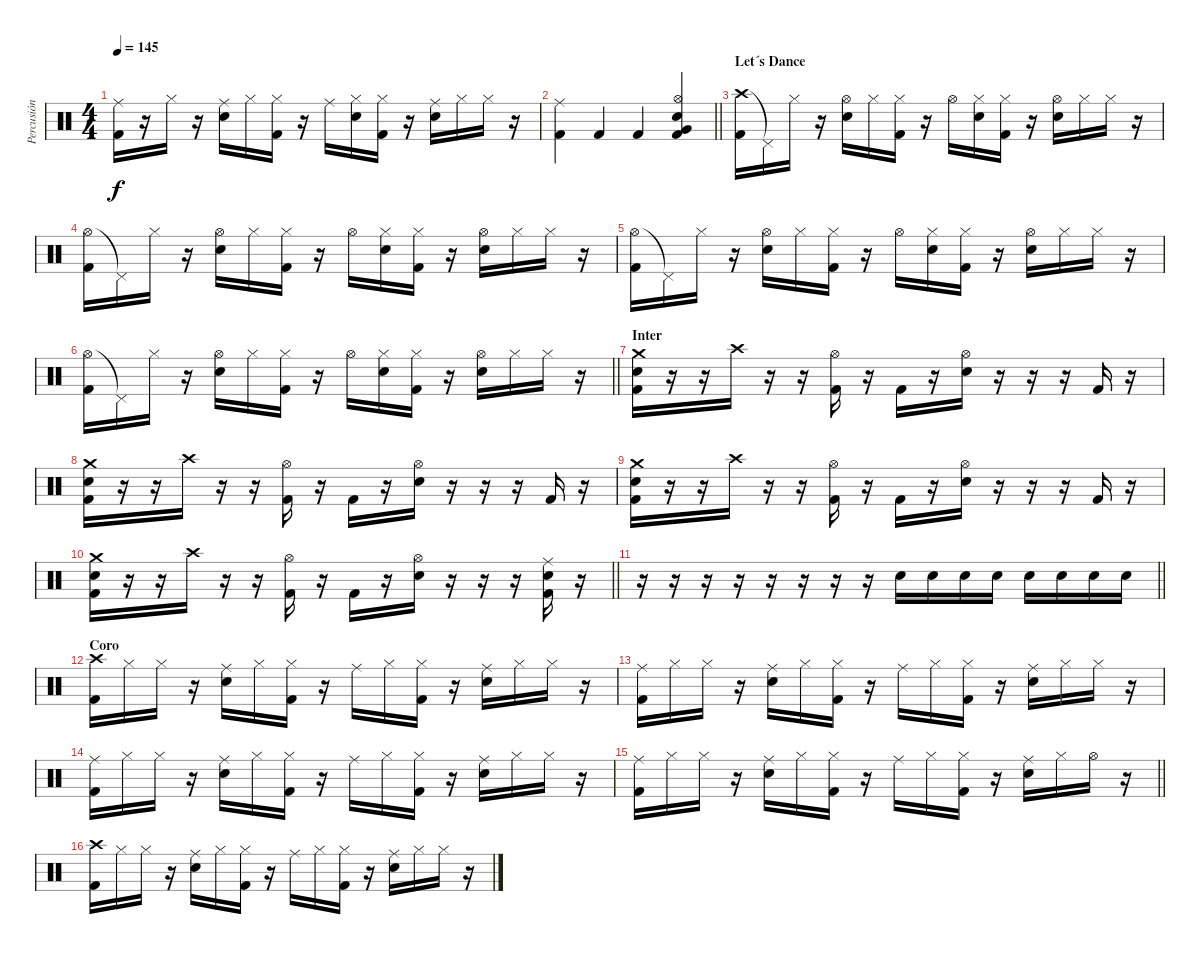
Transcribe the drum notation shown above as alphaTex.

\track ("Percusión" "Percusión") {instrument percussion}
\staff {score}
\articulation defaults
\ts (4 4)
\tempo 145
\clef neutral
\ks c
("Ride (middle)" "Kick (hit) 2").16{dy f} r.16 "Hi-Hat (closed)".16 r.16 ("Ride (middle)" "Electric Snare (hit)").16 "Hi-Hat (closed)".16 ("Hi-Hat (closed)" "Kick (hit) 2").16 r.16 "Ride (middle)".16 ("Hi-Hat (closed)" "Electric Snare (hit)").16 ("Hi-Hat (closed)" "Kick (hit) 2").16 r.16 ("Ride (middle)" "Electric Snare (hit)").16 "Hi-Hat (closed)".16 "Hi-Hat (closed)".16 r.16 |
\barLineRight lightlight
("Ride (middle)" "Kick (hit) 2").4 "Kick (hit) 2".4 "Kick (hit) 2".4 ("Hi-Hat (open)" "Electric Snare (hit)" "Very Low Tom (hit)" "Kick (hit) 2").4 |
\section ("" "Let´s Dance")
("Crash high (hit)" "Kick (hit) 2").16 "Pedal Hi-Hat (hit)"{t}.16 "Hi-Hat (closed)".16 r.16 ("Hi-Hat (open)" "Electric Snare (hit)").16 "Hi-Hat (closed)".16 ("Hi-Hat (closed)" "Kick (hit) 2").16 r.16 "Hi-Hat (open)".16 ("Hi-Hat (closed)" "Electric Snare (hit)").16 ("Hi-Hat (closed)" "Kick (hit) 2").16 r.16 ("Hi-Hat (open)" "Electric Snare (hit)").16 "Hi-Hat (closed)".16 "Hi-Hat (closed)".16 r.16 |
("Hi-Hat (open)" "Kick (hit) 2").16 "Pedal Hi-Hat (hit)"{t}.16 "Hi-Hat (closed)".16 r.16 ("Hi-Hat (open)" "Electric Snare (hit)").16 "Hi-Hat (closed)".16 ("Hi-Hat (closed)" "Kick (hit) 2").16 r.16 "Hi-Hat (open)".16 ("Hi-Hat (closed)" "Electric Snare (hit)").16 ("Hi-Hat (closed)" "Kick (hit) 2").16 r.16 ("Hi-Hat (open)" "Electric Snare (hit)").16 "Hi-Hat (closed)".16 "Hi-Hat (closed)".16 r.16 |
("Hi-Hat (open)" "Kick (hit) 2").16 "Pedal Hi-Hat (hit)"{t}.16 "Hi-Hat (closed)".16 r.16 ("Hi-Hat (open)" "Electric Snare (hit)").16 "Hi-Hat (closed)".16 ("Hi-Hat (closed)" "Kick (hit) 2").16 r.16 "Hi-Hat (open)".16 ("Hi-Hat (closed)" "Electric Snare (hit)").16 ("Hi-Hat (closed)" "Kick (hit) 2").16 r.16 ("Hi-Hat (open)" "Electric Snare (hit)").16 "Hi-Hat (closed)".16 "Hi-Hat (closed)".16 r.16 |
\barLineRight lightlight
("Hi-Hat (open)" "Kick (hit) 2").16 "Pedal Hi-Hat (hit)"{t}.16 "Hi-Hat (closed)".16 r.16 ("Hi-Hat (open)" "Electric Snare (hit)").16 "Hi-Hat (closed)".16 ("Hi-Hat (closed)" "Kick (hit) 2").16 r.16 "Hi-Hat (open)".16 ("Hi-Hat (closed)" "Electric Snare (hit)").16 ("Hi-Hat (closed)" "Kick (hit) 2").16 r.16 ("Hi-Hat (open)" "Electric Snare (hit)").16 "Hi-Hat (closed)".16 "Hi-Hat (closed)".16 r.16 |
\section ("" "Inter")
("Crash medium (hit)" "Electric Snare (hit)" "Kick (hit) 2").16 r.16 r.16 "Crash high (hit)".16 r.16 r.16 ("Hi-Hat (open)" "Kick (hit) 2").16 r.16 "Kick (hit) 2".16 r.16 ("Hi-Hat (open)" "Electric Snare (hit)").16 r.16 r.16 r.16 "Kick (hit) 2".16 r.16 |
("Crash medium (hit)" "Electric Snare (hit)" "Kick (hit) 2").16 r.16 r.16 "Crash high (hit)".16 r.16 r.16 ("Hi-Hat (open)" "Kick (hit) 2").16 r.16 "Kick (hit) 2".16 r.16 ("Hi-Hat (open)" "Electric Snare (hit)").16 r.16 r.16 r.16 "Kick (hit) 2".16 r.16 |
("Crash medium (hit)" "Electric Snare (hit)" "Kick (hit) 2").16 r.16 r.16 "Crash high (hit)".16 r.16 r.16 ("Hi-Hat (open)" "Kick (hit) 2").16 r.16 "Kick (hit) 2".16 r.16 ("Hi-Hat (open)" "Electric Snare (hit)").16 r.16 r.16 r.16 "Kick (hit) 2".16 r.16 |
\barLineRight lightlight
("Crash medium (hit)" "Electric Snare (hit)" "Kick (hit) 2").16 r.16 r.16 "Crash high (hit)".16 r.16 r.16 ("Hi-Hat (open)" "Kick (hit) 2").16 r.16 "Kick (hit) 2".16 r.16 ("Hi-Hat (open)" "Electric Snare (hit)").16 r.16 r.16 r.16 ("Ride (middle)" "Electric Snare (hit)" "Kick (hit) 2").16 r.16 |
\barLineRight lightlight
r.16 r.16 r.16 r.16 r.16 r.16 r.16 r.16 "Electric Snare (hit)".16 "Electric Snare (hit)".16 "Electric Snare (hit)".16 "Electric Snare (hit)".16 "Electric Snare (hit)".16 "Electric Snare (hit)".16 "Electric Snare (hit)".16 "Electric Snare (hit)".16 |
\section ("" "Coro")
("Crash high (hit)" "Kick (hit) 2").16 "Hi-Hat (closed)".16 "Hi-Hat (closed)".16 r.16 ("Ride (middle)" "Electric Snare (hit)").16 "Hi-Hat (closed)".16 ("Hi-Hat (closed)" "Kick (hit) 2").16 r.16 "Ride (middle)".16 "Hi-Hat (closed)".16 ("Hi-Hat (closed)" "Kick (hit) 2").16 r.16 ("Ride (middle)" "Electric Snare (hit)").16 "Hi-Hat (closed)".16 "Hi-Hat (closed)".16 r.16 |
("Ride (middle)" "Kick (hit) 2").16 "Hi-Hat (closed)".16 "Hi-Hat (closed)".16 r.16 ("Ride (middle)" "Electric Snare (hit)").16 "Hi-Hat (closed)".16 ("Hi-Hat (closed)" "Kick (hit) 2").16 r.16 "Ride (middle)".16 "Hi-Hat (closed)".16 ("Hi-Hat (closed)" "Kick (hit) 2").16 r.16 ("Ride (middle)" "Electric Snare (hit)").16 "Hi-Hat (closed)".16 "Hi-Hat (closed)".16 r.16 |
("Ride (middle)" "Kick (hit) 2").16 "Hi-Hat (closed)".16 "Hi-Hat (closed)".16 r.16 ("Ride (middle)" "Electric Snare (hit)").16 "Hi-Hat (closed)".16 ("Hi-Hat (closed)" "Kick (hit) 2").16 r.16 "Ride (middle)".16 "Hi-Hat (closed)".16 ("Hi-Hat (closed)" "Kick (hit) 2").16 r.16 ("Ride (middle)" "Electric Snare (hit)").16 "Hi-Hat (closed)".16 "Hi-Hat (closed)".16 r.16 |
\barLineRight lightlight
("Ride (middle)" "Kick (hit) 2").16 "Hi-Hat (closed)".16 "Hi-Hat (closed)".16 r.16 ("Ride (middle)" "Electric Snare (hit)").16 "Hi-Hat (closed)".16 ("Hi-Hat (closed)" "Kick (hit) 2").16 r.16 "Ride (middle)".16 "Hi-Hat (closed)".16 ("Hi-Hat (closed)" "Kick (hit) 2").16 r.16 ("Ride (middle)" "Electric Snare (hit)").16 "Hi-Hat (closed)".16 "Hi-Hat (open)".16 r.16 |
("Crash high (hit)" "Kick (hit) 2").16 "Hi-Hat (closed)".16 "Hi-Hat (closed)".16 r.16 ("Ride (middle)" "Electric Snare (hit)").16 "Hi-Hat (closed)".16 ("Hi-Hat (closed)" "Kick (hit) 2").16 r.16 "Ride (middle)".16 "Hi-Hat (closed)".16 ("Hi-Hat (closed)" "Kick (hit) 2").16 r.16 ("Ride (middle)" "Electric Snare (hit)").16 "Hi-Hat (closed)".16 "Hi-Hat (closed)".16 r.16
